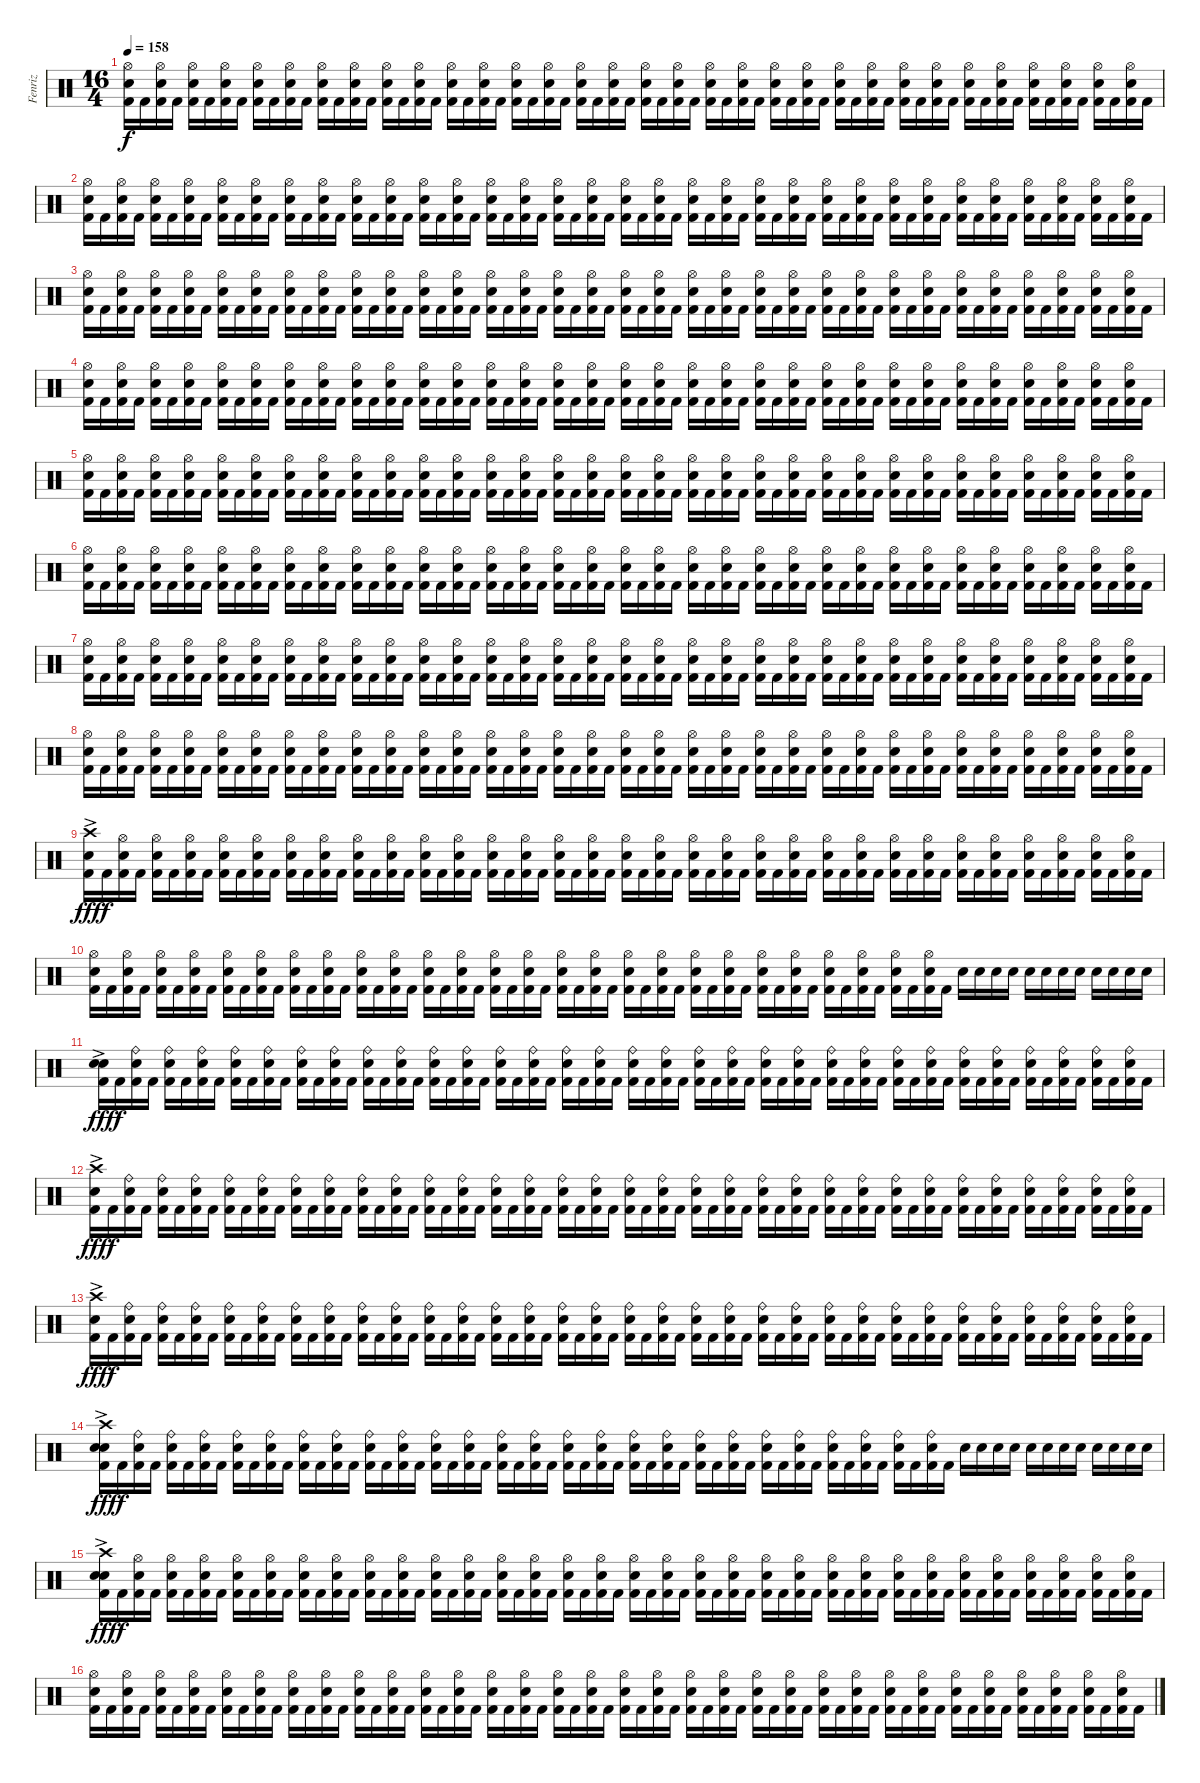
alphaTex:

\track ("Fenriz" "Fenriz") {instrument percussion}
\staff {score}
\articulation defaults
\ts (16 4)
\tempo 158
\clef neutral
\ks c
("Hi-Hat (open)" "Snare (hit) 2" "Kick (hit) 2").16{dy f} "Kick (hit) 2".16 ("Hi-Hat (open)" "Snare (hit) 2" "Kick (hit) 2").16 "Kick (hit) 2".16 ("Hi-Hat (open)" "Snare (hit) 2" "Kick (hit) 2").16 "Kick (hit) 2".16 ("Hi-Hat (open)" "Snare (hit) 2" "Kick (hit) 2").16 "Kick (hit) 2".16 ("Hi-Hat (open)" "Snare (hit) 2" "Kick (hit) 2").16 "Kick (hit) 2".16 ("Hi-Hat (open)" "Snare (hit) 2" "Kick (hit) 2").16 "Kick (hit) 2".16 ("Hi-Hat (open)" "Snare (hit) 2" "Kick (hit) 2").16 "Kick (hit) 2".16 ("Hi-Hat (open)" "Snare (hit) 2" "Kick (hit) 2").16 "Kick (hit) 2".16 ("Hi-Hat (open)" "Snare (hit) 2" "Kick (hit) 2").16 "Kick (hit) 2".16 ("Hi-Hat (open)" "Snare (hit) 2" "Kick (hit) 2").16 "Kick (hit) 2".16 ("Hi-Hat (open)" "Snare (hit) 2" "Kick (hit) 2").16 "Kick (hit) 2".16 ("Hi-Hat (open)" "Snare (hit) 2" "Kick (hit) 2").16 "Kick (hit) 2".16 ("Hi-Hat (open)" "Snare (hit) 2" "Kick (hit) 2").16 "Kick (hit) 2".16 ("Hi-Hat (open)" "Snare (hit) 2" "Kick (hit) 2").16 "Kick (hit) 2".16 ("Hi-Hat (open)" "Snare (hit) 2" "Kick (hit) 2").16 "Kick (hit) 2".16 ("Hi-Hat (open)" "Snare (hit) 2" "Kick (hit) 2").16 "Kick (hit) 2".16 ("Hi-Hat (open)" "Snare (hit) 2" "Kick (hit) 2").16 "Kick (hit) 2".16 ("Hi-Hat (open)" "Snare (hit) 2" "Kick (hit) 2").16 "Kick (hit) 2".16 ("Hi-Hat (open)" "Snare (hit) 2" "Kick (hit) 2").16 "Kick (hit) 2".16 ("Hi-Hat (open)" "Snare (hit) 2" "Kick (hit) 2").16 "Kick (hit) 2".16 ("Hi-Hat (open)" "Snare (hit) 2" "Kick (hit) 2").16 "Kick (hit) 2".16 ("Hi-Hat (open)" "Snare (hit) 2" "Kick (hit) 2").16 "Kick (hit) 2".16 ("Hi-Hat (open)" "Snare (hit) 2" "Kick (hit) 2").16 "Kick (hit) 2".16 ("Hi-Hat (open)" "Snare (hit) 2" "Kick (hit) 2").16 "Kick (hit) 2".16 ("Hi-Hat (open)" "Snare (hit) 2" "Kick (hit) 2").16 "Kick (hit) 2".16 ("Hi-Hat (open)" "Snare (hit) 2" "Kick (hit) 2").16 "Kick (hit) 2".16 ("Hi-Hat (open)" "Snare (hit) 2" "Kick (hit) 2").16 "Kick (hit) 2".16 ("Hi-Hat (open)" "Snare (hit) 2" "Kick (hit) 2").16 "Kick (hit) 2".16 ("Hi-Hat (open)" "Snare (hit) 2" "Kick (hit) 2").16 "Kick (hit) 2".16 ("Hi-Hat (open)" "Snare (hit) 2" "Kick (hit) 2").16 "Kick (hit) 2".16 ("Hi-Hat (open)" "Snare (hit) 2" "Kick (hit) 2").16 "Kick (hit) 2".16 ("Hi-Hat (open)" "Snare (hit) 2" "Kick (hit) 2").16 "Kick (hit) 2".16 |
("Hi-Hat (open)" "Snare (hit) 2" "Kick (hit) 2").16 "Kick (hit) 2".16 ("Hi-Hat (open)" "Snare (hit) 2" "Kick (hit) 2").16 "Kick (hit) 2".16 ("Hi-Hat (open)" "Snare (hit) 2" "Kick (hit) 2").16 "Kick (hit) 2".16 ("Hi-Hat (open)" "Snare (hit) 2" "Kick (hit) 2").16 "Kick (hit) 2".16 ("Hi-Hat (open)" "Snare (hit) 2" "Kick (hit) 2").16 "Kick (hit) 2".16 ("Hi-Hat (open)" "Snare (hit) 2" "Kick (hit) 2").16 "Kick (hit) 2".16 ("Hi-Hat (open)" "Snare (hit) 2" "Kick (hit) 2").16 "Kick (hit) 2".16 ("Hi-Hat (open)" "Snare (hit) 2" "Kick (hit) 2").16 "Kick (hit) 2".16 ("Hi-Hat (open)" "Snare (hit) 2" "Kick (hit) 2").16 "Kick (hit) 2".16 ("Hi-Hat (open)" "Snare (hit) 2" "Kick (hit) 2").16 "Kick (hit) 2".16 ("Hi-Hat (open)" "Snare (hit) 2" "Kick (hit) 2").16 "Kick (hit) 2".16 ("Hi-Hat (open)" "Snare (hit) 2" "Kick (hit) 2").16 "Kick (hit) 2".16 ("Hi-Hat (open)" "Snare (hit) 2" "Kick (hit) 2").16 "Kick (hit) 2".16 ("Hi-Hat (open)" "Snare (hit) 2" "Kick (hit) 2").16 "Kick (hit) 2".16 ("Hi-Hat (open)" "Snare (hit) 2" "Kick (hit) 2").16 "Kick (hit) 2".16 ("Hi-Hat (open)" "Snare (hit) 2" "Kick (hit) 2").16 "Kick (hit) 2".16 ("Hi-Hat (open)" "Snare (hit) 2" "Kick (hit) 2").16 "Kick (hit) 2".16 ("Hi-Hat (open)" "Snare (hit) 2" "Kick (hit) 2").16 "Kick (hit) 2".16 ("Hi-Hat (open)" "Snare (hit) 2" "Kick (hit) 2").16 "Kick (hit) 2".16 ("Hi-Hat (open)" "Snare (hit) 2" "Kick (hit) 2").16 "Kick (hit) 2".16 ("Hi-Hat (open)" "Snare (hit) 2" "Kick (hit) 2").16 "Kick (hit) 2".16 ("Hi-Hat (open)" "Snare (hit) 2" "Kick (hit) 2").16 "Kick (hit) 2".16 ("Hi-Hat (open)" "Snare (hit) 2" "Kick (hit) 2").16 "Kick (hit) 2".16 ("Hi-Hat (open)" "Snare (hit) 2" "Kick (hit) 2").16 "Kick (hit) 2".16 ("Hi-Hat (open)" "Snare (hit) 2" "Kick (hit) 2").16 "Kick (hit) 2".16 ("Hi-Hat (open)" "Snare (hit) 2" "Kick (hit) 2").16 "Kick (hit) 2".16 ("Hi-Hat (open)" "Snare (hit) 2" "Kick (hit) 2").16 "Kick (hit) 2".16 ("Hi-Hat (open)" "Snare (hit) 2" "Kick (hit) 2").16 "Kick (hit) 2".16 ("Hi-Hat (open)" "Snare (hit) 2" "Kick (hit) 2").16 "Kick (hit) 2".16 ("Hi-Hat (open)" "Snare (hit) 2" "Kick (hit) 2").16 "Kick (hit) 2".16 ("Hi-Hat (open)" "Snare (hit) 2" "Kick (hit) 2").16 "Kick (hit) 2".16 ("Hi-Hat (open)" "Snare (hit) 2" "Kick (hit) 2").16 "Kick (hit) 2".16 |
("Hi-Hat (open)" "Snare (hit) 2" "Kick (hit) 2").16 "Kick (hit) 2".16 ("Hi-Hat (open)" "Snare (hit) 2" "Kick (hit) 2").16 "Kick (hit) 2".16 ("Hi-Hat (open)" "Snare (hit) 2" "Kick (hit) 2").16 "Kick (hit) 2".16 ("Hi-Hat (open)" "Snare (hit) 2" "Kick (hit) 2").16 "Kick (hit) 2".16 ("Hi-Hat (open)" "Snare (hit) 2" "Kick (hit) 2").16 "Kick (hit) 2".16 ("Hi-Hat (open)" "Snare (hit) 2" "Kick (hit) 2").16 "Kick (hit) 2".16 ("Hi-Hat (open)" "Snare (hit) 2" "Kick (hit) 2").16 "Kick (hit) 2".16 ("Hi-Hat (open)" "Snare (hit) 2" "Kick (hit) 2").16 "Kick (hit) 2".16 ("Hi-Hat (open)" "Snare (hit) 2" "Kick (hit) 2").16 "Kick (hit) 2".16 ("Hi-Hat (open)" "Snare (hit) 2" "Kick (hit) 2").16 "Kick (hit) 2".16 ("Hi-Hat (open)" "Snare (hit) 2" "Kick (hit) 2").16 "Kick (hit) 2".16 ("Hi-Hat (open)" "Snare (hit) 2" "Kick (hit) 2").16 "Kick (hit) 2".16 ("Hi-Hat (open)" "Snare (hit) 2" "Kick (hit) 2").16 "Kick (hit) 2".16 ("Hi-Hat (open)" "Snare (hit) 2" "Kick (hit) 2").16 "Kick (hit) 2".16 ("Hi-Hat (open)" "Snare (hit) 2" "Kick (hit) 2").16 "Kick (hit) 2".16 ("Hi-Hat (open)" "Snare (hit) 2" "Kick (hit) 2").16 "Kick (hit) 2".16 ("Hi-Hat (open)" "Snare (hit) 2" "Kick (hit) 2").16 "Kick (hit) 2".16 ("Hi-Hat (open)" "Snare (hit) 2" "Kick (hit) 2").16 "Kick (hit) 2".16 ("Hi-Hat (open)" "Snare (hit) 2" "Kick (hit) 2").16 "Kick (hit) 2".16 ("Hi-Hat (open)" "Snare (hit) 2" "Kick (hit) 2").16 "Kick (hit) 2".16 ("Hi-Hat (open)" "Snare (hit) 2" "Kick (hit) 2").16 "Kick (hit) 2".16 ("Hi-Hat (open)" "Snare (hit) 2" "Kick (hit) 2").16 "Kick (hit) 2".16 ("Hi-Hat (open)" "Snare (hit) 2" "Kick (hit) 2").16 "Kick (hit) 2".16 ("Hi-Hat (open)" "Snare (hit) 2" "Kick (hit) 2").16 "Kick (hit) 2".16 ("Hi-Hat (open)" "Snare (hit) 2" "Kick (hit) 2").16 "Kick (hit) 2".16 ("Hi-Hat (open)" "Snare (hit) 2" "Kick (hit) 2").16 "Kick (hit) 2".16 ("Hi-Hat (open)" "Snare (hit) 2" "Kick (hit) 2").16 "Kick (hit) 2".16 ("Hi-Hat (open)" "Snare (hit) 2" "Kick (hit) 2").16 "Kick (hit) 2".16 ("Hi-Hat (open)" "Snare (hit) 2" "Kick (hit) 2").16 "Kick (hit) 2".16 ("Hi-Hat (open)" "Snare (hit) 2" "Kick (hit) 2").16 "Kick (hit) 2".16 ("Hi-Hat (open)" "Snare (hit) 2" "Kick (hit) 2").16 "Kick (hit) 2".16 ("Hi-Hat (open)" "Snare (hit) 2" "Kick (hit) 2").16 "Kick (hit) 2".16 |
("Hi-Hat (open)" "Snare (hit) 2" "Kick (hit) 2").16 "Kick (hit) 2".16 ("Hi-Hat (open)" "Snare (hit) 2" "Kick (hit) 2").16 "Kick (hit) 2".16 ("Hi-Hat (open)" "Snare (hit) 2" "Kick (hit) 2").16 "Kick (hit) 2".16 ("Hi-Hat (open)" "Snare (hit) 2" "Kick (hit) 2").16 "Kick (hit) 2".16 ("Hi-Hat (open)" "Snare (hit) 2" "Kick (hit) 2").16 "Kick (hit) 2".16 ("Hi-Hat (open)" "Snare (hit) 2" "Kick (hit) 2").16 "Kick (hit) 2".16 ("Hi-Hat (open)" "Snare (hit) 2" "Kick (hit) 2").16 "Kick (hit) 2".16 ("Hi-Hat (open)" "Snare (hit) 2" "Kick (hit) 2").16 "Kick (hit) 2".16 ("Hi-Hat (open)" "Snare (hit) 2" "Kick (hit) 2").16 "Kick (hit) 2".16 ("Hi-Hat (open)" "Snare (hit) 2" "Kick (hit) 2").16 "Kick (hit) 2".16 ("Hi-Hat (open)" "Snare (hit) 2" "Kick (hit) 2").16 "Kick (hit) 2".16 ("Hi-Hat (open)" "Snare (hit) 2" "Kick (hit) 2").16 "Kick (hit) 2".16 ("Hi-Hat (open)" "Snare (hit) 2" "Kick (hit) 2").16 "Kick (hit) 2".16 ("Hi-Hat (open)" "Snare (hit) 2" "Kick (hit) 2").16 "Kick (hit) 2".16 ("Hi-Hat (open)" "Snare (hit) 2" "Kick (hit) 2").16 "Kick (hit) 2".16 ("Hi-Hat (open)" "Snare (hit) 2" "Kick (hit) 2").16 "Kick (hit) 2".16 ("Hi-Hat (open)" "Snare (hit) 2" "Kick (hit) 2").16 "Kick (hit) 2".16 ("Hi-Hat (open)" "Snare (hit) 2" "Kick (hit) 2").16 "Kick (hit) 2".16 ("Hi-Hat (open)" "Snare (hit) 2" "Kick (hit) 2").16 "Kick (hit) 2".16 ("Hi-Hat (open)" "Snare (hit) 2" "Kick (hit) 2").16 "Kick (hit) 2".16 ("Hi-Hat (open)" "Snare (hit) 2" "Kick (hit) 2").16 "Kick (hit) 2".16 ("Hi-Hat (open)" "Snare (hit) 2" "Kick (hit) 2").16 "Kick (hit) 2".16 ("Hi-Hat (open)" "Snare (hit) 2" "Kick (hit) 2").16 "Kick (hit) 2".16 ("Hi-Hat (open)" "Snare (hit) 2" "Kick (hit) 2").16 "Kick (hit) 2".16 ("Hi-Hat (open)" "Snare (hit) 2" "Kick (hit) 2").16 "Kick (hit) 2".16 ("Hi-Hat (open)" "Snare (hit) 2" "Kick (hit) 2").16 "Kick (hit) 2".16 ("Hi-Hat (open)" "Snare (hit) 2" "Kick (hit) 2").16 "Kick (hit) 2".16 ("Hi-Hat (open)" "Snare (hit) 2" "Kick (hit) 2").16 "Kick (hit) 2".16 ("Hi-Hat (open)" "Snare (hit) 2" "Kick (hit) 2").16 "Kick (hit) 2".16 ("Hi-Hat (open)" "Snare (hit) 2" "Kick (hit) 2").16 "Kick (hit) 2".16 ("Hi-Hat (open)" "Snare (hit) 2" "Kick (hit) 2").16 "Kick (hit) 2".16 ("Hi-Hat (open)" "Snare (hit) 2" "Kick (hit) 2").16 "Kick (hit) 2".16 |
("Hi-Hat (open)" "Snare (hit) 2" "Kick (hit) 2").16 "Kick (hit) 2".16 ("Hi-Hat (open)" "Snare (hit) 2" "Kick (hit) 2").16 "Kick (hit) 2".16 ("Hi-Hat (open)" "Snare (hit) 2" "Kick (hit) 2").16 "Kick (hit) 2".16 ("Hi-Hat (open)" "Snare (hit) 2" "Kick (hit) 2").16 "Kick (hit) 2".16 ("Hi-Hat (open)" "Snare (hit) 2" "Kick (hit) 2").16 "Kick (hit) 2".16 ("Hi-Hat (open)" "Snare (hit) 2" "Kick (hit) 2").16 "Kick (hit) 2".16 ("Hi-Hat (open)" "Snare (hit) 2" "Kick (hit) 2").16 "Kick (hit) 2".16 ("Hi-Hat (open)" "Snare (hit) 2" "Kick (hit) 2").16 "Kick (hit) 2".16 ("Hi-Hat (open)" "Snare (hit) 2" "Kick (hit) 2").16 "Kick (hit) 2".16 ("Hi-Hat (open)" "Snare (hit) 2" "Kick (hit) 2").16 "Kick (hit) 2".16 ("Hi-Hat (open)" "Snare (hit) 2" "Kick (hit) 2").16 "Kick (hit) 2".16 ("Hi-Hat (open)" "Snare (hit) 2" "Kick (hit) 2").16 "Kick (hit) 2".16 ("Hi-Hat (open)" "Snare (hit) 2" "Kick (hit) 2").16 "Kick (hit) 2".16 ("Hi-Hat (open)" "Snare (hit) 2" "Kick (hit) 2").16 "Kick (hit) 2".16 ("Hi-Hat (open)" "Snare (hit) 2" "Kick (hit) 2").16 "Kick (hit) 2".16 ("Hi-Hat (open)" "Snare (hit) 2" "Kick (hit) 2").16 "Kick (hit) 2".16 ("Hi-Hat (open)" "Snare (hit) 2" "Kick (hit) 2").16 "Kick (hit) 2".16 ("Hi-Hat (open)" "Snare (hit) 2" "Kick (hit) 2").16 "Kick (hit) 2".16 ("Hi-Hat (open)" "Snare (hit) 2" "Kick (hit) 2").16 "Kick (hit) 2".16 ("Hi-Hat (open)" "Snare (hit) 2" "Kick (hit) 2").16 "Kick (hit) 2".16 ("Hi-Hat (open)" "Snare (hit) 2" "Kick (hit) 2").16 "Kick (hit) 2".16 ("Hi-Hat (open)" "Snare (hit) 2" "Kick (hit) 2").16 "Kick (hit) 2".16 ("Hi-Hat (open)" "Snare (hit) 2" "Kick (hit) 2").16 "Kick (hit) 2".16 ("Hi-Hat (open)" "Snare (hit) 2" "Kick (hit) 2").16 "Kick (hit) 2".16 ("Hi-Hat (open)" "Snare (hit) 2" "Kick (hit) 2").16 "Kick (hit) 2".16 ("Hi-Hat (open)" "Snare (hit) 2" "Kick (hit) 2").16 "Kick (hit) 2".16 ("Hi-Hat (open)" "Snare (hit) 2" "Kick (hit) 2").16 "Kick (hit) 2".16 ("Hi-Hat (open)" "Snare (hit) 2" "Kick (hit) 2").16 "Kick (hit) 2".16 ("Hi-Hat (open)" "Snare (hit) 2" "Kick (hit) 2").16 "Kick (hit) 2".16 ("Hi-Hat (open)" "Snare (hit) 2" "Kick (hit) 2").16 "Kick (hit) 2".16 ("Hi-Hat (open)" "Snare (hit) 2" "Kick (hit) 2").16 "Kick (hit) 2".16 ("Hi-Hat (open)" "Snare (hit) 2" "Kick (hit) 2").16 "Kick (hit) 2".16 |
("Hi-Hat (open)" "Snare (hit) 2" "Kick (hit) 2").16 "Kick (hit) 2".16 ("Hi-Hat (open)" "Snare (hit) 2" "Kick (hit) 2").16 "Kick (hit) 2".16 ("Hi-Hat (open)" "Snare (hit) 2" "Kick (hit) 2").16 "Kick (hit) 2".16 ("Hi-Hat (open)" "Snare (hit) 2" "Kick (hit) 2").16 "Kick (hit) 2".16 ("Hi-Hat (open)" "Snare (hit) 2" "Kick (hit) 2").16 "Kick (hit) 2".16 ("Hi-Hat (open)" "Snare (hit) 2" "Kick (hit) 2").16 "Kick (hit) 2".16 ("Hi-Hat (open)" "Snare (hit) 2" "Kick (hit) 2").16 "Kick (hit) 2".16 ("Hi-Hat (open)" "Snare (hit) 2" "Kick (hit) 2").16 "Kick (hit) 2".16 ("Hi-Hat (open)" "Snare (hit) 2" "Kick (hit) 2").16 "Kick (hit) 2".16 ("Hi-Hat (open)" "Snare (hit) 2" "Kick (hit) 2").16 "Kick (hit) 2".16 ("Hi-Hat (open)" "Snare (hit) 2" "Kick (hit) 2").16 "Kick (hit) 2".16 ("Hi-Hat (open)" "Snare (hit) 2" "Kick (hit) 2").16 "Kick (hit) 2".16 ("Hi-Hat (open)" "Snare (hit) 2" "Kick (hit) 2").16 "Kick (hit) 2".16 ("Hi-Hat (open)" "Snare (hit) 2" "Kick (hit) 2").16 "Kick (hit) 2".16 ("Hi-Hat (open)" "Snare (hit) 2" "Kick (hit) 2").16 "Kick (hit) 2".16 ("Hi-Hat (open)" "Snare (hit) 2" "Kick (hit) 2").16 "Kick (hit) 2".16 ("Hi-Hat (open)" "Snare (hit) 2" "Kick (hit) 2").16 "Kick (hit) 2".16 ("Hi-Hat (open)" "Snare (hit) 2" "Kick (hit) 2").16 "Kick (hit) 2".16 ("Hi-Hat (open)" "Snare (hit) 2" "Kick (hit) 2").16 "Kick (hit) 2".16 ("Hi-Hat (open)" "Snare (hit) 2" "Kick (hit) 2").16 "Kick (hit) 2".16 ("Hi-Hat (open)" "Snare (hit) 2" "Kick (hit) 2").16 "Kick (hit) 2".16 ("Hi-Hat (open)" "Snare (hit) 2" "Kick (hit) 2").16 "Kick (hit) 2".16 ("Hi-Hat (open)" "Snare (hit) 2" "Kick (hit) 2").16 "Kick (hit) 2".16 ("Hi-Hat (open)" "Snare (hit) 2" "Kick (hit) 2").16 "Kick (hit) 2".16 ("Hi-Hat (open)" "Snare (hit) 2" "Kick (hit) 2").16 "Kick (hit) 2".16 ("Hi-Hat (open)" "Snare (hit) 2" "Kick (hit) 2").16 "Kick (hit) 2".16 ("Hi-Hat (open)" "Snare (hit) 2" "Kick (hit) 2").16 "Kick (hit) 2".16 ("Hi-Hat (open)" "Snare (hit) 2" "Kick (hit) 2").16 "Kick (hit) 2".16 ("Hi-Hat (open)" "Snare (hit) 2" "Kick (hit) 2").16 "Kick (hit) 2".16 ("Hi-Hat (open)" "Snare (hit) 2" "Kick (hit) 2").16 "Kick (hit) 2".16 ("Hi-Hat (open)" "Snare (hit) 2" "Kick (hit) 2").16 "Kick (hit) 2".16 ("Hi-Hat (open)" "Snare (hit) 2" "Kick (hit) 2").16 "Kick (hit) 2".16 |
("Hi-Hat (open)" "Snare (hit) 2" "Kick (hit) 2").16 "Kick (hit) 2".16 ("Hi-Hat (open)" "Snare (hit) 2" "Kick (hit) 2").16 "Kick (hit) 2".16 ("Hi-Hat (open)" "Snare (hit) 2" "Kick (hit) 2").16 "Kick (hit) 2".16 ("Hi-Hat (open)" "Snare (hit) 2" "Kick (hit) 2").16 "Kick (hit) 2".16 ("Hi-Hat (open)" "Snare (hit) 2" "Kick (hit) 2").16 "Kick (hit) 2".16 ("Hi-Hat (open)" "Snare (hit) 2" "Kick (hit) 2").16 "Kick (hit) 2".16 ("Hi-Hat (open)" "Snare (hit) 2" "Kick (hit) 2").16 "Kick (hit) 2".16 ("Hi-Hat (open)" "Snare (hit) 2" "Kick (hit) 2").16 "Kick (hit) 2".16 ("Hi-Hat (open)" "Snare (hit) 2" "Kick (hit) 2").16 "Kick (hit) 2".16 ("Hi-Hat (open)" "Snare (hit) 2" "Kick (hit) 2").16 "Kick (hit) 2".16 ("Hi-Hat (open)" "Snare (hit) 2" "Kick (hit) 2").16 "Kick (hit) 2".16 ("Hi-Hat (open)" "Snare (hit) 2" "Kick (hit) 2").16 "Kick (hit) 2".16 ("Hi-Hat (open)" "Snare (hit) 2" "Kick (hit) 2").16 "Kick (hit) 2".16 ("Hi-Hat (open)" "Snare (hit) 2" "Kick (hit) 2").16 "Kick (hit) 2".16 ("Hi-Hat (open)" "Snare (hit) 2" "Kick (hit) 2").16 "Kick (hit) 2".16 ("Hi-Hat (open)" "Snare (hit) 2" "Kick (hit) 2").16 "Kick (hit) 2".16 ("Hi-Hat (open)" "Snare (hit) 2" "Kick (hit) 2").16 "Kick (hit) 2".16 ("Hi-Hat (open)" "Snare (hit) 2" "Kick (hit) 2").16 "Kick (hit) 2".16 ("Hi-Hat (open)" "Snare (hit) 2" "Kick (hit) 2").16 "Kick (hit) 2".16 ("Hi-Hat (open)" "Snare (hit) 2" "Kick (hit) 2").16 "Kick (hit) 2".16 ("Hi-Hat (open)" "Snare (hit) 2" "Kick (hit) 2").16 "Kick (hit) 2".16 ("Hi-Hat (open)" "Snare (hit) 2" "Kick (hit) 2").16 "Kick (hit) 2".16 ("Hi-Hat (open)" "Snare (hit) 2" "Kick (hit) 2").16 "Kick (hit) 2".16 ("Hi-Hat (open)" "Snare (hit) 2" "Kick (hit) 2").16 "Kick (hit) 2".16 ("Hi-Hat (open)" "Snare (hit) 2" "Kick (hit) 2").16 "Kick (hit) 2".16 ("Hi-Hat (open)" "Snare (hit) 2" "Kick (hit) 2").16 "Kick (hit) 2".16 ("Hi-Hat (open)" "Snare (hit) 2" "Kick (hit) 2").16 "Kick (hit) 2".16 ("Hi-Hat (open)" "Snare (hit) 2" "Kick (hit) 2").16 "Kick (hit) 2".16 ("Hi-Hat (open)" "Snare (hit) 2" "Kick (hit) 2").16 "Kick (hit) 2".16 ("Hi-Hat (open)" "Snare (hit) 2" "Kick (hit) 2").16 "Kick (hit) 2".16 ("Hi-Hat (open)" "Snare (hit) 2" "Kick (hit) 2").16 "Kick (hit) 2".16 ("Hi-Hat (open)" "Snare (hit) 2" "Kick (hit) 2").16 "Kick (hit) 2".16 |
("Hi-Hat (open)" "Snare (hit) 2" "Kick (hit) 2").16 "Kick (hit) 2".16 ("Hi-Hat (open)" "Snare (hit) 2" "Kick (hit) 2").16 "Kick (hit) 2".16 ("Hi-Hat (open)" "Snare (hit) 2" "Kick (hit) 2").16 "Kick (hit) 2".16 ("Hi-Hat (open)" "Snare (hit) 2" "Kick (hit) 2").16 "Kick (hit) 2".16 ("Hi-Hat (open)" "Snare (hit) 2" "Kick (hit) 2").16 "Kick (hit) 2".16 ("Hi-Hat (open)" "Snare (hit) 2" "Kick (hit) 2").16 "Kick (hit) 2".16 ("Hi-Hat (open)" "Snare (hit) 2" "Kick (hit) 2").16 "Kick (hit) 2".16 ("Hi-Hat (open)" "Snare (hit) 2" "Kick (hit) 2").16 "Kick (hit) 2".16 ("Hi-Hat (open)" "Snare (hit) 2" "Kick (hit) 2").16 "Kick (hit) 2".16 ("Hi-Hat (open)" "Snare (hit) 2" "Kick (hit) 2").16 "Kick (hit) 2".16 ("Hi-Hat (open)" "Snare (hit) 2" "Kick (hit) 2").16 "Kick (hit) 2".16 ("Hi-Hat (open)" "Snare (hit) 2" "Kick (hit) 2").16 "Kick (hit) 2".16 ("Hi-Hat (open)" "Snare (hit) 2" "Kick (hit) 2").16 "Kick (hit) 2".16 ("Hi-Hat (open)" "Snare (hit) 2" "Kick (hit) 2").16 "Kick (hit) 2".16 ("Hi-Hat (open)" "Snare (hit) 2" "Kick (hit) 2").16 "Kick (hit) 2".16 ("Hi-Hat (open)" "Snare (hit) 2" "Kick (hit) 2").16 "Kick (hit) 2".16 ("Hi-Hat (open)" "Snare (hit) 2" "Kick (hit) 2").16 "Kick (hit) 2".16 ("Hi-Hat (open)" "Snare (hit) 2" "Kick (hit) 2").16 "Kick (hit) 2".16 ("Hi-Hat (open)" "Snare (hit) 2" "Kick (hit) 2").16 "Kick (hit) 2".16 ("Hi-Hat (open)" "Snare (hit) 2" "Kick (hit) 2").16 "Kick (hit) 2".16 ("Hi-Hat (open)" "Snare (hit) 2" "Kick (hit) 2").16 "Kick (hit) 2".16 ("Hi-Hat (open)" "Snare (hit) 2" "Kick (hit) 2").16 "Kick (hit) 2".16 ("Hi-Hat (open)" "Snare (hit) 2" "Kick (hit) 2").16 "Kick (hit) 2".16 ("Hi-Hat (open)" "Snare (hit) 2" "Kick (hit) 2").16 "Kick (hit) 2".16 ("Hi-Hat (open)" "Snare (hit) 2" "Kick (hit) 2").16 "Kick (hit) 2".16 ("Hi-Hat (open)" "Snare (hit) 2" "Kick (hit) 2").16 "Kick (hit) 2".16 ("Hi-Hat (open)" "Snare (hit) 2" "Kick (hit) 2").16 "Kick (hit) 2".16 ("Hi-Hat (open)" "Snare (hit) 2" "Kick (hit) 2").16 "Kick (hit) 2".16 ("Hi-Hat (open)" "Snare (hit) 2" "Kick (hit) 2").16 "Kick (hit) 2".16 ("Hi-Hat (open)" "Snare (hit) 2" "Kick (hit) 2").16 "Kick (hit) 2".16 ("Hi-Hat (open)" "Snare (hit) 2" "Kick (hit) 2").16 "Kick (hit) 2".16 ("Hi-Hat (open)" "Snare (hit) 2" "Kick (hit) 2").16 "Kick (hit) 2".16 |
("Crash high (hit)"{ac} "Snare (hit) 2" "Kick (hit) 2").16{dy fff} "Kick (hit) 2".16{dy f} ("Hi-Hat (open)" "Snare (hit) 2" "Kick (hit) 2").16 "Kick (hit) 2".16 ("Hi-Hat (open)" "Snare (hit) 2" "Kick (hit) 2").16 "Kick (hit) 2".16 ("Hi-Hat (open)" "Snare (hit) 2" "Kick (hit) 2").16 "Kick (hit) 2".16 ("Hi-Hat (open)" "Snare (hit) 2" "Kick (hit) 2").16 "Kick (hit) 2".16 ("Hi-Hat (open)" "Snare (hit) 2" "Kick (hit) 2").16 "Kick (hit) 2".16 ("Hi-Hat (open)" "Snare (hit) 2" "Kick (hit) 2").16 "Kick (hit) 2".16 ("Hi-Hat (open)" "Snare (hit) 2" "Kick (hit) 2").16 "Kick (hit) 2".16 ("Hi-Hat (open)" "Snare (hit) 2" "Kick (hit) 2").16 "Kick (hit) 2".16 ("Hi-Hat (open)" "Snare (hit) 2" "Kick (hit) 2").16 "Kick (hit) 2".16 ("Hi-Hat (open)" "Snare (hit) 2" "Kick (hit) 2").16 "Kick (hit) 2".16 ("Hi-Hat (open)" "Snare (hit) 2" "Kick (hit) 2").16 "Kick (hit) 2".16 ("Hi-Hat (open)" "Snare (hit) 2" "Kick (hit) 2").16 "Kick (hit) 2".16 ("Hi-Hat (open)" "Snare (hit) 2" "Kick (hit) 2").16 "Kick (hit) 2".16 ("Hi-Hat (open)" "Snare (hit) 2" "Kick (hit) 2").16 "Kick (hit) 2".16 ("Hi-Hat (open)" "Snare (hit) 2" "Kick (hit) 2").16 "Kick (hit) 2".16 ("Hi-Hat (open)" "Snare (hit) 2" "Kick (hit) 2").16 "Kick (hit) 2".16 ("Hi-Hat (open)" "Snare (hit) 2" "Kick (hit) 2").16 "Kick (hit) 2".16 ("Hi-Hat (open)" "Snare (hit) 2" "Kick (hit) 2").16 "Kick (hit) 2".16 ("Hi-Hat (open)" "Snare (hit) 2" "Kick (hit) 2").16 "Kick (hit) 2".16 ("Hi-Hat (open)" "Snare (hit) 2" "Kick (hit) 2").16 "Kick (hit) 2".16 ("Hi-Hat (open)" "Snare (hit) 2" "Kick (hit) 2").16 "Kick (hit) 2".16 ("Hi-Hat (open)" "Snare (hit) 2" "Kick (hit) 2").16 "Kick (hit) 2".16 ("Hi-Hat (open)" "Snare (hit) 2" "Kick (hit) 2").16 "Kick (hit) 2".16 ("Hi-Hat (open)" "Snare (hit) 2" "Kick (hit) 2").16 "Kick (hit) 2".16 ("Hi-Hat (open)" "Snare (hit) 2" "Kick (hit) 2").16 "Kick (hit) 2".16 ("Hi-Hat (open)" "Snare (hit) 2" "Kick (hit) 2").16 "Kick (hit) 2".16 ("Hi-Hat (open)" "Snare (hit) 2" "Kick (hit) 2").16 "Kick (hit) 2".16 ("Hi-Hat (open)" "Snare (hit) 2" "Kick (hit) 2").16 "Kick (hit) 2".16 ("Hi-Hat (open)" "Snare (hit) 2" "Kick (hit) 2").16 "Kick (hit) 2".16 ("Hi-Hat (open)" "Snare (hit) 2" "Kick (hit) 2").16 "Kick (hit) 2".16 ("Hi-Hat (open)" "Snare (hit) 2" "Kick (hit) 2").16 "Kick (hit) 2".16 |
("Hi-Hat (open)" "Snare (hit) 2" "Kick (hit) 2").16 "Kick (hit) 2".16 ("Hi-Hat (open)" "Snare (hit) 2" "Kick (hit) 2").16 "Kick (hit) 2".16 ("Hi-Hat (open)" "Snare (hit) 2" "Kick (hit) 2").16 "Kick (hit) 2".16 ("Hi-Hat (open)" "Snare (hit) 2" "Kick (hit) 2").16 "Kick (hit) 2".16 ("Hi-Hat (open)" "Snare (hit) 2" "Kick (hit) 2").16 "Kick (hit) 2".16 ("Hi-Hat (open)" "Snare (hit) 2" "Kick (hit) 2").16 "Kick (hit) 2".16 ("Hi-Hat (open)" "Snare (hit) 2" "Kick (hit) 2").16 "Kick (hit) 2".16 ("Hi-Hat (open)" "Snare (hit) 2" "Kick (hit) 2").16 "Kick (hit) 2".16 ("Hi-Hat (open)" "Snare (hit) 2" "Kick (hit) 2").16 "Kick (hit) 2".16 ("Hi-Hat (open)" "Snare (hit) 2" "Kick (hit) 2").16 "Kick (hit) 2".16 ("Hi-Hat (open)" "Snare (hit) 2" "Kick (hit) 2").16 "Kick (hit) 2".16 ("Hi-Hat (open)" "Snare (hit) 2" "Kick (hit) 2").16 "Kick (hit) 2".16 ("Hi-Hat (open)" "Snare (hit) 2" "Kick (hit) 2").16 "Kick (hit) 2".16 ("Hi-Hat (open)" "Snare (hit) 2" "Kick (hit) 2").16 "Kick (hit) 2".16 ("Hi-Hat (open)" "Snare (hit) 2" "Kick (hit) 2").16 "Kick (hit) 2".16 ("Hi-Hat (open)" "Snare (hit) 2" "Kick (hit) 2").16 "Kick (hit) 2".16 ("Hi-Hat (open)" "Snare (hit) 2" "Kick (hit) 2").16 "Kick (hit) 2".16 ("Hi-Hat (open)" "Snare (hit) 2" "Kick (hit) 2").16 "Kick (hit) 2".16 ("Hi-Hat (open)" "Snare (hit) 2" "Kick (hit) 2").16 "Kick (hit) 2".16 ("Hi-Hat (open)" "Snare (hit) 2" "Kick (hit) 2").16 "Kick (hit) 2".16 ("Hi-Hat (open)" "Snare (hit) 2" "Kick (hit) 2").16 "Kick (hit) 2".16 ("Hi-Hat (open)" "Snare (hit) 2" "Kick (hit) 2").16 "Kick (hit) 2".16 ("Hi-Hat (open)" "Snare (hit) 2" "Kick (hit) 2").16 "Kick (hit) 2".16 ("Hi-Hat (open)" "Snare (hit) 2" "Kick (hit) 2").16 "Kick (hit) 2".16 ("Hi-Hat (open)" "Snare (hit) 2" "Kick (hit) 2").16 "Kick (hit) 2".16 ("Hi-Hat (open)" "Snare (hit) 2" "Kick (hit) 2").16 "Kick (hit) 2".16 "Snare (hit) 2".16 "Snare (hit) 2".16 "Snare (hit) 2".16 "Snare (hit) 2".16 "Snare (hit) 2".16 "Snare (hit) 2".16 "Snare (hit) 2".16 "Snare (hit) 2".16 "Snare (hit) 2".16 "Snare (hit) 2".16 "Snare (hit) 2".16 "Snare (hit) 2".16 |
("Snare (hit) 2"{ac} "Snare (hit) 2"{ac} "Kick (hit) 2").16{dy fff} "Kick (hit) 2".16{dy f} ("Ride (bell)" "Snare (hit) 2" "Kick (hit) 2").16 "Kick (hit) 2".16 ("Ride (bell)" "Snare (hit) 2" "Kick (hit) 2").16 "Kick (hit) 2".16 ("Ride (bell)" "Snare (hit) 2" "Kick (hit) 2").16 "Kick (hit) 2".16 ("Ride (bell)" "Snare (hit) 2" "Kick (hit) 2").16 "Kick (hit) 2".16 ("Ride (bell)" "Snare (hit) 2" "Kick (hit) 2").16 "Kick (hit) 2".16 ("Ride (bell)" "Snare (hit) 2" "Kick (hit) 2").16 "Kick (hit) 2".16 ("Ride (bell)" "Snare (hit) 2" "Kick (hit) 2").16 "Kick (hit) 2".16 ("Ride (bell)" "Snare (hit) 2" "Kick (hit) 2").16 "Kick (hit) 2".16 ("Ride (bell)" "Snare (hit) 2" "Kick (hit) 2").16 "Kick (hit) 2".16 ("Ride (bell)" "Snare (hit) 2" "Kick (hit) 2").16 "Kick (hit) 2".16 ("Ride (bell)" "Snare (hit) 2" "Kick (hit) 2").16 "Kick (hit) 2".16 ("Ride (bell)" "Snare (hit) 2" "Kick (hit) 2").16 "Kick (hit) 2".16 ("Ride (bell)" "Snare (hit) 2" "Kick (hit) 2").16 "Kick (hit) 2".16 ("Ride (bell)" "Snare (hit) 2" "Kick (hit) 2").16 "Kick (hit) 2".16 ("Ride (bell)" "Snare (hit) 2" "Kick (hit) 2").16 "Kick (hit) 2".16 ("Ride (bell)" "Snare (hit) 2" "Kick (hit) 2").16 "Kick (hit) 2".16 ("Ride (bell)" "Snare (hit) 2" "Kick (hit) 2").16 "Kick (hit) 2".16 ("Ride (bell)" "Snare (hit) 2" "Kick (hit) 2").16 "Kick (hit) 2".16 ("Ride (bell)" "Snare (hit) 2" "Kick (hit) 2").16 "Kick (hit) 2".16 ("Ride (bell)" "Snare (hit) 2" "Kick (hit) 2").16 "Kick (hit) 2".16 ("Ride (bell)" "Snare (hit) 2" "Kick (hit) 2").16 "Kick (hit) 2".16 ("Ride (bell)" "Snare (hit) 2" "Kick (hit) 2").16 "Kick (hit) 2".16 ("Ride (bell)" "Snare (hit) 2" "Kick (hit) 2").16 "Kick (hit) 2".16 ("Ride (bell)" "Snare (hit) 2" "Kick (hit) 2").16 "Kick (hit) 2".16 ("Ride (bell)" "Snare (hit) 2" "Kick (hit) 2").16 "Kick (hit) 2".16 ("Ride (bell)" "Snare (hit) 2" "Kick (hit) 2").16 "Kick (hit) 2".16 ("Ride (bell)" "Snare (hit) 2" "Kick (hit) 2").16 "Kick (hit) 2".16 ("Ride (bell)" "Snare (hit) 2" "Kick (hit) 2").16 "Kick (hit) 2".16 ("Ride (bell)" "Snare (hit) 2" "Kick (hit) 2").16 "Kick (hit) 2".16 ("Ride (bell)" "Snare (hit) 2" "Kick (hit) 2").16 "Kick (hit) 2".16 ("Ride (bell)" "Snare (hit) 2" "Kick (hit) 2").16 "Kick (hit) 2".16 |
("Crash high (hit)"{ac} "Snare (hit) 2" "Kick (hit) 2").16{dy fff} "Kick (hit) 2".16{dy f} ("Ride (bell)" "Snare (hit) 2" "Kick (hit) 2").16 "Kick (hit) 2".16 ("Ride (bell)" "Snare (hit) 2" "Kick (hit) 2").16 "Kick (hit) 2".16 ("Ride (bell)" "Snare (hit) 2" "Kick (hit) 2").16 "Kick (hit) 2".16 ("Ride (bell)" "Snare (hit) 2" "Kick (hit) 2").16 "Kick (hit) 2".16 ("Ride (bell)" "Snare (hit) 2" "Kick (hit) 2").16 "Kick (hit) 2".16 ("Ride (bell)" "Snare (hit) 2" "Kick (hit) 2").16 "Kick (hit) 2".16 ("Ride (bell)" "Snare (hit) 2" "Kick (hit) 2").16 "Kick (hit) 2".16 ("Ride (bell)" "Snare (hit) 2" "Kick (hit) 2").16 "Kick (hit) 2".16 ("Ride (bell)" "Snare (hit) 2" "Kick (hit) 2").16 "Kick (hit) 2".16 ("Ride (bell)" "Snare (hit) 2" "Kick (hit) 2").16 "Kick (hit) 2".16 ("Ride (bell)" "Snare (hit) 2" "Kick (hit) 2").16 "Kick (hit) 2".16 ("Ride (bell)" "Snare (hit) 2" "Kick (hit) 2").16 "Kick (hit) 2".16 ("Ride (bell)" "Snare (hit) 2" "Kick (hit) 2").16 "Kick (hit) 2".16 ("Ride (bell)" "Snare (hit) 2" "Kick (hit) 2").16 "Kick (hit) 2".16 ("Ride (bell)" "Snare (hit) 2" "Kick (hit) 2").16 "Kick (hit) 2".16 ("Ride (bell)" "Snare (hit) 2" "Kick (hit) 2").16 "Kick (hit) 2".16 ("Ride (bell)" "Snare (hit) 2" "Kick (hit) 2").16 "Kick (hit) 2".16 ("Ride (bell)" "Snare (hit) 2" "Kick (hit) 2").16 "Kick (hit) 2".16 ("Ride (bell)" "Snare (hit) 2" "Kick (hit) 2").16 "Kick (hit) 2".16 ("Ride (bell)" "Snare (hit) 2" "Kick (hit) 2").16 "Kick (hit) 2".16 ("Ride (bell)" "Snare (hit) 2" "Kick (hit) 2").16 "Kick (hit) 2".16 ("Ride (bell)" "Snare (hit) 2" "Kick (hit) 2").16 "Kick (hit) 2".16 ("Ride (bell)" "Snare (hit) 2" "Kick (hit) 2").16 "Kick (hit) 2".16 ("Ride (bell)" "Snare (hit) 2" "Kick (hit) 2").16 "Kick (hit) 2".16 ("Ride (bell)" "Snare (hit) 2" "Kick (hit) 2").16 "Kick (hit) 2".16 ("Ride (bell)" "Snare (hit) 2" "Kick (hit) 2").16 "Kick (hit) 2".16 ("Ride (bell)" "Snare (hit) 2" "Kick (hit) 2").16 "Kick (hit) 2".16 ("Ride (bell)" "Snare (hit) 2" "Kick (hit) 2").16 "Kick (hit) 2".16 ("Ride (bell)" "Snare (hit) 2" "Kick (hit) 2").16 "Kick (hit) 2".16 ("Ride (bell)" "Snare (hit) 2" "Kick (hit) 2").16 "Kick (hit) 2".16 ("Ride (bell)" "Snare (hit) 2" "Kick (hit) 2").16 "Kick (hit) 2".16 |
("Crash high (hit)"{ac} "Snare (hit) 2" "Kick (hit) 2").16{dy fff} "Kick (hit) 2".16{dy f} ("Ride (bell)" "Snare (hit) 2" "Kick (hit) 2").16 "Kick (hit) 2".16 ("Ride (bell)" "Snare (hit) 2" "Kick (hit) 2").16 "Kick (hit) 2".16 ("Ride (bell)" "Snare (hit) 2" "Kick (hit) 2").16 "Kick (hit) 2".16 ("Ride (bell)" "Snare (hit) 2" "Kick (hit) 2").16 "Kick (hit) 2".16 ("Ride (bell)" "Snare (hit) 2" "Kick (hit) 2").16 "Kick (hit) 2".16 ("Ride (bell)" "Snare (hit) 2" "Kick (hit) 2").16 "Kick (hit) 2".16 ("Ride (bell)" "Snare (hit) 2" "Kick (hit) 2").16 "Kick (hit) 2".16 ("Ride (bell)" "Snare (hit) 2" "Kick (hit) 2").16 "Kick (hit) 2".16 ("Ride (bell)" "Snare (hit) 2" "Kick (hit) 2").16 "Kick (hit) 2".16 ("Ride (bell)" "Snare (hit) 2" "Kick (hit) 2").16 "Kick (hit) 2".16 ("Ride (bell)" "Snare (hit) 2" "Kick (hit) 2").16 "Kick (hit) 2".16 ("Ride (bell)" "Snare (hit) 2" "Kick (hit) 2").16 "Kick (hit) 2".16 ("Ride (bell)" "Snare (hit) 2" "Kick (hit) 2").16 "Kick (hit) 2".16 ("Ride (bell)" "Snare (hit) 2" "Kick (hit) 2").16 "Kick (hit) 2".16 ("Ride (bell)" "Snare (hit) 2" "Kick (hit) 2").16 "Kick (hit) 2".16 ("Ride (bell)" "Snare (hit) 2" "Kick (hit) 2").16 "Kick (hit) 2".16 ("Ride (bell)" "Snare (hit) 2" "Kick (hit) 2").16 "Kick (hit) 2".16 ("Ride (bell)" "Snare (hit) 2" "Kick (hit) 2").16 "Kick (hit) 2".16 ("Ride (bell)" "Snare (hit) 2" "Kick (hit) 2").16 "Kick (hit) 2".16 ("Ride (bell)" "Snare (hit) 2" "Kick (hit) 2").16 "Kick (hit) 2".16 ("Ride (bell)" "Snare (hit) 2" "Kick (hit) 2").16 "Kick (hit) 2".16 ("Ride (bell)" "Snare (hit) 2" "Kick (hit) 2").16 "Kick (hit) 2".16 ("Ride (bell)" "Snare (hit) 2" "Kick (hit) 2").16 "Kick (hit) 2".16 ("Ride (bell)" "Snare (hit) 2" "Kick (hit) 2").16 "Kick (hit) 2".16 ("Ride (bell)" "Snare (hit) 2" "Kick (hit) 2").16 "Kick (hit) 2".16 ("Ride (bell)" "Snare (hit) 2" "Kick (hit) 2").16 "Kick (hit) 2".16 ("Ride (bell)" "Snare (hit) 2" "Kick (hit) 2").16 "Kick (hit) 2".16 ("Ride (bell)" "Snare (hit) 2" "Kick (hit) 2").16 "Kick (hit) 2".16 ("Ride (bell)" "Snare (hit) 2" "Kick (hit) 2").16 "Kick (hit) 2".16 ("Ride (bell)" "Snare (hit) 2" "Kick (hit) 2").16 "Kick (hit) 2".16 ("Ride (bell)" "Snare (hit) 2" "Kick (hit) 2").16 "Kick (hit) 2".16 |
("Crash high (hit)"{ac} "Snare (hit) 2"{ac} "Snare (hit) 2"{ac} "Kick (hit) 2").16{dy fff} "Kick (hit) 2".16{dy f} ("Ride (bell)" "Snare (hit) 2" "Kick (hit) 2").16 "Kick (hit) 2".16 ("Ride (bell)" "Snare (hit) 2" "Kick (hit) 2").16 "Kick (hit) 2".16 ("Ride (bell)" "Snare (hit) 2" "Kick (hit) 2").16 "Kick (hit) 2".16 ("Ride (bell)" "Snare (hit) 2" "Kick (hit) 2").16 "Kick (hit) 2".16 ("Ride (bell)" "Snare (hit) 2" "Kick (hit) 2").16 "Kick (hit) 2".16 ("Ride (bell)" "Snare (hit) 2" "Kick (hit) 2").16 "Kick (hit) 2".16 ("Ride (bell)" "Snare (hit) 2" "Kick (hit) 2").16 "Kick (hit) 2".16 ("Ride (bell)" "Snare (hit) 2" "Kick (hit) 2").16 "Kick (hit) 2".16 ("Ride (bell)" "Snare (hit) 2" "Kick (hit) 2").16 "Kick (hit) 2".16 ("Ride (bell)" "Snare (hit) 2" "Kick (hit) 2").16 "Kick (hit) 2".16 ("Ride (bell)" "Snare (hit) 2" "Kick (hit) 2").16 "Kick (hit) 2".16 ("Ride (bell)" "Snare (hit) 2" "Kick (hit) 2").16 "Kick (hit) 2".16 ("Ride (bell)" "Snare (hit) 2" "Kick (hit) 2").16 "Kick (hit) 2".16 ("Ride (bell)" "Snare (hit) 2" "Kick (hit) 2").16 "Kick (hit) 2".16 ("Ride (bell)" "Snare (hit) 2" "Kick (hit) 2").16 "Kick (hit) 2".16 ("Ride (bell)" "Snare (hit) 2" "Kick (hit) 2").16 "Kick (hit) 2".16 ("Ride (bell)" "Snare (hit) 2" "Kick (hit) 2").16 "Kick (hit) 2".16 ("Ride (bell)" "Snare (hit) 2" "Kick (hit) 2").16 "Kick (hit) 2".16 ("Ride (bell)" "Snare (hit) 2" "Kick (hit) 2").16 "Kick (hit) 2".16 ("Ride (bell)" "Snare (hit) 2" "Kick (hit) 2").16 "Kick (hit) 2".16 ("Ride (bell)" "Snare (hit) 2" "Kick (hit) 2").16 "Kick (hit) 2".16 ("Ride (bell)" "Snare (hit) 2" "Kick (hit) 2").16 "Kick (hit) 2".16 ("Ride (bell)" "Snare (hit) 2" "Kick (hit) 2").16 "Kick (hit) 2".16 ("Ride (bell)" "Snare (hit) 2" "Kick (hit) 2").16 "Kick (hit) 2".16 ("Ride (bell)" "Snare (hit) 2" "Kick (hit) 2").16 "Kick (hit) 2".16 "Snare (hit) 2".16 "Snare (hit) 2".16 "Snare (hit) 2".16 "Snare (hit) 2".16 "Snare (hit) 2".16 "Snare (hit) 2".16 "Snare (hit) 2".16 "Snare (hit) 2".16 "Snare (hit) 2".16 "Snare (hit) 2".16 "Snare (hit) 2".16 "Snare (hit) 2".16 |
("Crash high (hit)"{ac} "Snare (hit) 2"{ac} "Snare (hit) 2"{ac} "Kick (hit) 2").16{dy fff} "Kick (hit) 2".16{dy f} ("Hi-Hat (open)" "Snare (hit) 2" "Kick (hit) 2").16 "Kick (hit) 2".16 ("Hi-Hat (open)" "Snare (hit) 2" "Kick (hit) 2").16 "Kick (hit) 2".16 ("Hi-Hat (open)" "Snare (hit) 2" "Kick (hit) 2").16 "Kick (hit) 2".16 ("Hi-Hat (open)" "Snare (hit) 2" "Kick (hit) 2").16 "Kick (hit) 2".16 ("Hi-Hat (open)" "Snare (hit) 2" "Kick (hit) 2").16 "Kick (hit) 2".16 ("Hi-Hat (open)" "Snare (hit) 2" "Kick (hit) 2").16 "Kick (hit) 2".16 ("Hi-Hat (open)" "Snare (hit) 2" "Kick (hit) 2").16 "Kick (hit) 2".16 ("Hi-Hat (open)" "Snare (hit) 2" "Kick (hit) 2").16 "Kick (hit) 2".16 ("Hi-Hat (open)" "Snare (hit) 2" "Kick (hit) 2").16 "Kick (hit) 2".16 ("Hi-Hat (open)" "Snare (hit) 2" "Kick (hit) 2").16 "Kick (hit) 2".16 ("Hi-Hat (open)" "Snare (hit) 2" "Kick (hit) 2").16 "Kick (hit) 2".16 ("Hi-Hat (open)" "Snare (hit) 2" "Kick (hit) 2").16 "Kick (hit) 2".16 ("Hi-Hat (open)" "Snare (hit) 2" "Kick (hit) 2").16 "Kick (hit) 2".16 ("Hi-Hat (open)" "Snare (hit) 2" "Kick (hit) 2").16 "Kick (hit) 2".16 ("Hi-Hat (open)" "Snare (hit) 2" "Kick (hit) 2").16 "Kick (hit) 2".16 ("Hi-Hat (open)" "Snare (hit) 2" "Kick (hit) 2").16 "Kick (hit) 2".16 ("Hi-Hat (open)" "Snare (hit) 2" "Kick (hit) 2").16 "Kick (hit) 2".16 ("Hi-Hat (open)" "Snare (hit) 2" "Kick (hit) 2").16 "Kick (hit) 2".16 ("Hi-Hat (open)" "Snare (hit) 2" "Kick (hit) 2").16 "Kick (hit) 2".16 ("Hi-Hat (open)" "Snare (hit) 2" "Kick (hit) 2").16 "Kick (hit) 2".16 ("Hi-Hat (open)" "Snare (hit) 2" "Kick (hit) 2").16 "Kick (hit) 2".16 ("Hi-Hat (open)" "Snare (hit) 2" "Kick (hit) 2").16 "Kick (hit) 2".16 ("Hi-Hat (open)" "Snare (hit) 2" "Kick (hit) 2").16 "Kick (hit) 2".16 ("Hi-Hat (open)" "Snare (hit) 2" "Kick (hit) 2").16 "Kick (hit) 2".16 ("Hi-Hat (open)" "Snare (hit) 2" "Kick (hit) 2").16 "Kick (hit) 2".16 ("Hi-Hat (open)" "Snare (hit) 2" "Kick (hit) 2").16 "Kick (hit) 2".16 ("Hi-Hat (open)" "Snare (hit) 2" "Kick (hit) 2").16 "Kick (hit) 2".16 ("Hi-Hat (open)" "Snare (hit) 2" "Kick (hit) 2").16 "Kick (hit) 2".16 ("Hi-Hat (open)" "Snare (hit) 2" "Kick (hit) 2").16 "Kick (hit) 2".16 ("Hi-Hat (open)" "Snare (hit) 2" "Kick (hit) 2").16 "Kick (hit) 2".16 ("Hi-Hat (open)" "Snare (hit) 2" "Kick (hit) 2").16 "Kick (hit) 2".16 |
("Hi-Hat (open)" "Snare (hit) 2" "Kick (hit) 2").16 "Kick (hit) 2".16 ("Hi-Hat (open)" "Snare (hit) 2" "Kick (hit) 2").16 "Kick (hit) 2".16 ("Hi-Hat (open)" "Snare (hit) 2" "Kick (hit) 2").16 "Kick (hit) 2".16 ("Hi-Hat (open)" "Snare (hit) 2" "Kick (hit) 2").16 "Kick (hit) 2".16 ("Hi-Hat (open)" "Snare (hit) 2" "Kick (hit) 2").16 "Kick (hit) 2".16 ("Hi-Hat (open)" "Snare (hit) 2" "Kick (hit) 2").16 "Kick (hit) 2".16 ("Hi-Hat (open)" "Snare (hit) 2" "Kick (hit) 2").16 "Kick (hit) 2".16 ("Hi-Hat (open)" "Snare (hit) 2" "Kick (hit) 2").16 "Kick (hit) 2".16 ("Hi-Hat (open)" "Snare (hit) 2" "Kick (hit) 2").16 "Kick (hit) 2".16 ("Hi-Hat (open)" "Snare (hit) 2" "Kick (hit) 2").16 "Kick (hit) 2".16 ("Hi-Hat (open)" "Snare (hit) 2" "Kick (hit) 2").16 "Kick (hit) 2".16 ("Hi-Hat (open)" "Snare (hit) 2" "Kick (hit) 2").16 "Kick (hit) 2".16 ("Hi-Hat (open)" "Snare (hit) 2" "Kick (hit) 2").16 "Kick (hit) 2".16 ("Hi-Hat (open)" "Snare (hit) 2" "Kick (hit) 2").16 "Kick (hit) 2".16 ("Hi-Hat (open)" "Snare (hit) 2" "Kick (hit) 2").16 "Kick (hit) 2".16 ("Hi-Hat (open)" "Snare (hit) 2" "Kick (hit) 2").16 "Kick (hit) 2".16 ("Hi-Hat (open)" "Snare (hit) 2" "Kick (hit) 2").16 "Kick (hit) 2".16 ("Hi-Hat (open)" "Snare (hit) 2" "Kick (hit) 2").16 "Kick (hit) 2".16 ("Hi-Hat (open)" "Snare (hit) 2" "Kick (hit) 2").16 "Kick (hit) 2".16 ("Hi-Hat (open)" "Snare (hit) 2" "Kick (hit) 2").16 "Kick (hit) 2".16 ("Hi-Hat (open)" "Snare (hit) 2" "Kick (hit) 2").16 "Kick (hit) 2".16 ("Hi-Hat (open)" "Snare (hit) 2" "Kick (hit) 2").16 "Kick (hit) 2".16 ("Hi-Hat (open)" "Snare (hit) 2" "Kick (hit) 2").16 "Kick (hit) 2".16 ("Hi-Hat (open)" "Snare (hit) 2" "Kick (hit) 2").16 "Kick (hit) 2".16 ("Hi-Hat (open)" "Snare (hit) 2" "Kick (hit) 2").16 "Kick (hit) 2".16 ("Hi-Hat (open)" "Snare (hit) 2" "Kick (hit) 2").16 "Kick (hit) 2".16 ("Hi-Hat (open)" "Snare (hit) 2" "Kick (hit) 2").16 "Kick (hit) 2".16 ("Hi-Hat (open)" "Snare (hit) 2" "Kick (hit) 2").16 "Kick (hit) 2".16 ("Hi-Hat (open)" "Snare (hit) 2" "Kick (hit) 2").16 "Kick (hit) 2".16 ("Hi-Hat (open)" "Snare (hit) 2" "Kick (hit) 2").16 "Kick (hit) 2".16 ("Hi-Hat (open)" "Snare (hit) 2" "Kick (hit) 2").16 "Kick (hit) 2".16 ("Hi-Hat (open)" "Snare (hit) 2" "Kick (hit) 2").16 "Kick (hit) 2".16
